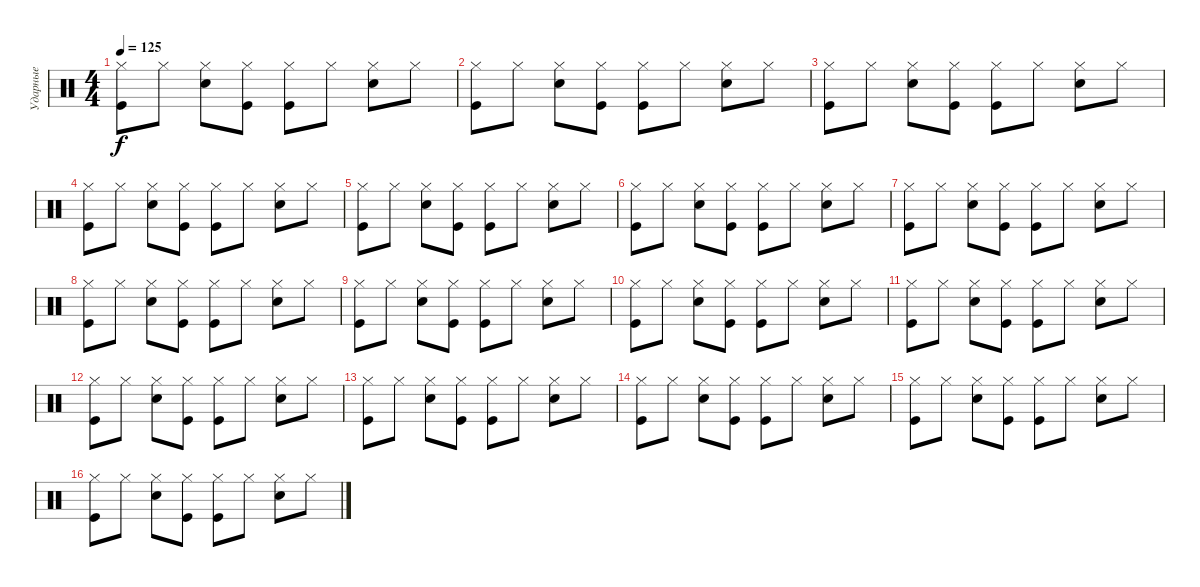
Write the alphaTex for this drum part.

\track ("Ударные" "Ударные") {instrument percussion}
\staff {score}
\articulation defaults
\ts (4 4)
\tempo 125
\clef neutral
\ks c
("Hi-Hat (closed)" "Kick (hit)").8{dy f} "Hi-Hat (closed)".8 ("Hi-Hat (closed)" "Snare (hit) 2").8 ("Hi-Hat (closed)" "Kick (hit)").8 ("Hi-Hat (closed)" "Kick (hit)").8 "Hi-Hat (closed)".8 ("Hi-Hat (closed)" "Snare (hit) 2").8 "Hi-Hat (closed)".8 |
("Hi-Hat (closed)" "Kick (hit)").8 "Hi-Hat (closed)".8 ("Hi-Hat (closed)" "Snare (hit) 2").8 ("Hi-Hat (closed)" "Kick (hit)").8 ("Hi-Hat (closed)" "Kick (hit)").8 "Hi-Hat (closed)".8 ("Hi-Hat (closed)" "Snare (hit) 2").8 "Hi-Hat (closed)".8 |
("Hi-Hat (closed)" "Kick (hit)").8 "Hi-Hat (closed)".8 ("Hi-Hat (closed)" "Snare (hit) 2").8 ("Hi-Hat (closed)" "Kick (hit)").8 ("Hi-Hat (closed)" "Kick (hit)").8 "Hi-Hat (closed)".8 ("Hi-Hat (closed)" "Snare (hit) 2").8 "Hi-Hat (closed)".8 |
("Hi-Hat (closed)" "Kick (hit)").8 "Hi-Hat (closed)".8 ("Hi-Hat (closed)" "Snare (hit) 2").8 ("Hi-Hat (closed)" "Kick (hit)").8 ("Hi-Hat (closed)" "Kick (hit)").8 "Hi-Hat (closed)".8 ("Hi-Hat (closed)" "Snare (hit) 2").8 "Hi-Hat (closed)".8 |
("Hi-Hat (closed)" "Kick (hit)").8 "Hi-Hat (closed)".8 ("Hi-Hat (closed)" "Snare (hit) 2").8 ("Hi-Hat (closed)" "Kick (hit)").8 ("Hi-Hat (closed)" "Kick (hit)").8 "Hi-Hat (closed)".8 ("Hi-Hat (closed)" "Snare (hit) 2").8 "Hi-Hat (closed)".8 |
("Hi-Hat (closed)" "Kick (hit)").8 "Hi-Hat (closed)".8 ("Hi-Hat (closed)" "Snare (hit) 2").8 ("Hi-Hat (closed)" "Kick (hit)").8 ("Hi-Hat (closed)" "Kick (hit)").8 "Hi-Hat (closed)".8 ("Hi-Hat (closed)" "Snare (hit) 2").8 "Hi-Hat (closed)".8 |
("Hi-Hat (closed)" "Kick (hit)").8 "Hi-Hat (closed)".8 ("Hi-Hat (closed)" "Snare (hit) 2").8 ("Hi-Hat (closed)" "Kick (hit)").8 ("Hi-Hat (closed)" "Kick (hit)").8 "Hi-Hat (closed)".8 ("Hi-Hat (closed)" "Snare (hit) 2").8 "Hi-Hat (closed)".8 |
("Hi-Hat (closed)" "Kick (hit)").8 "Hi-Hat (closed)".8 ("Hi-Hat (closed)" "Snare (hit) 2").8 ("Hi-Hat (closed)" "Kick (hit)").8 ("Hi-Hat (closed)" "Kick (hit)").8 "Hi-Hat (closed)".8 ("Hi-Hat (closed)" "Snare (hit) 2").8 "Hi-Hat (closed)".8 |
("Hi-Hat (closed)" "Kick (hit)").8 "Hi-Hat (closed)".8 ("Hi-Hat (closed)" "Snare (hit) 2").8 ("Hi-Hat (closed)" "Kick (hit)").8 ("Hi-Hat (closed)" "Kick (hit)").8 "Hi-Hat (closed)".8 ("Hi-Hat (closed)" "Snare (hit) 2").8 "Hi-Hat (closed)".8 |
("Hi-Hat (closed)" "Kick (hit)").8 "Hi-Hat (closed)".8 ("Hi-Hat (closed)" "Snare (hit) 2").8 ("Hi-Hat (closed)" "Kick (hit)").8 ("Hi-Hat (closed)" "Kick (hit)").8 "Hi-Hat (closed)".8 ("Hi-Hat (closed)" "Snare (hit) 2").8 "Hi-Hat (closed)".8 |
("Hi-Hat (closed)" "Kick (hit)").8 "Hi-Hat (closed)".8 ("Hi-Hat (closed)" "Snare (hit) 2").8 ("Hi-Hat (closed)" "Kick (hit)").8 ("Hi-Hat (closed)" "Kick (hit)").8 "Hi-Hat (closed)".8 ("Hi-Hat (closed)" "Snare (hit) 2").8 "Hi-Hat (closed)".8 |
("Hi-Hat (closed)" "Kick (hit)").8 "Hi-Hat (closed)".8 ("Hi-Hat (closed)" "Snare (hit) 2").8 ("Hi-Hat (closed)" "Kick (hit)").8 ("Hi-Hat (closed)" "Kick (hit)").8 "Hi-Hat (closed)".8 ("Hi-Hat (closed)" "Snare (hit) 2").8 "Hi-Hat (closed)".8 |
("Hi-Hat (closed)" "Kick (hit)").8 "Hi-Hat (closed)".8 ("Hi-Hat (closed)" "Snare (hit) 2").8 ("Hi-Hat (closed)" "Kick (hit)").8 ("Hi-Hat (closed)" "Kick (hit)").8 "Hi-Hat (closed)".8 ("Hi-Hat (closed)" "Snare (hit) 2").8 "Hi-Hat (closed)".8 |
("Hi-Hat (closed)" "Kick (hit)").8 "Hi-Hat (closed)".8 ("Hi-Hat (closed)" "Snare (hit) 2").8 ("Hi-Hat (closed)" "Kick (hit)").8 ("Hi-Hat (closed)" "Kick (hit)").8 "Hi-Hat (closed)".8 ("Hi-Hat (closed)" "Snare (hit) 2").8 "Hi-Hat (closed)".8 |
("Hi-Hat (closed)" "Kick (hit)").8 "Hi-Hat (closed)".8 ("Hi-Hat (closed)" "Snare (hit) 2").8 ("Hi-Hat (closed)" "Kick (hit)").8 ("Hi-Hat (closed)" "Kick (hit)").8 "Hi-Hat (closed)".8 ("Hi-Hat (closed)" "Snare (hit) 2").8 "Hi-Hat (closed)".8 |
("Hi-Hat (closed)" "Kick (hit)").8 "Hi-Hat (closed)".8 ("Hi-Hat (closed)" "Snare (hit) 2").8 ("Hi-Hat (closed)" "Kick (hit)").8 ("Hi-Hat (closed)" "Kick (hit)").8 "Hi-Hat (closed)".8 ("Hi-Hat (closed)" "Snare (hit) 2").8 "Hi-Hat (closed)".8
